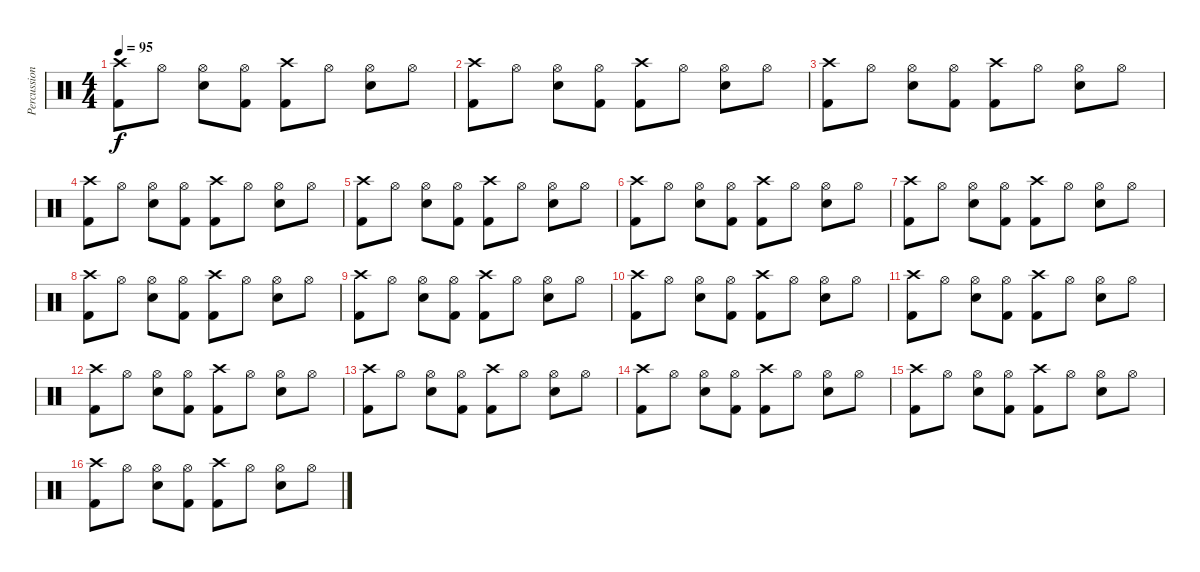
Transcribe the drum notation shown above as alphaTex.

\track ("Percussion" "Percussion") {instrument percussion}
\staff {score}
\articulation defaults
\ts (4 4)
\tempo 95
\clef neutral
\ks c
("Crash high (hit)" "Kick (hit) 2").8{dy f} "Hi-Hat (open)".8 ("Hi-Hat (open)" "Snare (hit) 2").8 ("Hi-Hat (open)" "Kick (hit) 2").8 ("Crash high (hit)" "Kick (hit) 2").8 "Hi-Hat (open)".8 ("Hi-Hat (open)" "Snare (hit) 2").8 "Hi-Hat (open)".8 |
("Crash high (hit)" "Kick (hit) 2").8 "Hi-Hat (open)".8 ("Hi-Hat (open)" "Snare (hit) 2").8 ("Hi-Hat (open)" "Kick (hit) 2").8 ("Crash high (hit)" "Kick (hit) 2").8 "Hi-Hat (open)".8 ("Hi-Hat (open)" "Snare (hit) 2").8 "Hi-Hat (open)".8 |
("Crash high (hit)" "Kick (hit) 2").8 "Hi-Hat (open)".8 ("Hi-Hat (open)" "Snare (hit) 2").8 ("Hi-Hat (open)" "Kick (hit) 2").8 ("Crash high (hit)" "Kick (hit) 2").8 "Hi-Hat (open)".8 ("Hi-Hat (open)" "Snare (hit) 2").8 "Hi-Hat (open)".8 |
("Crash high (hit)" "Kick (hit) 2").8 "Hi-Hat (open)".8 ("Hi-Hat (open)" "Snare (hit) 2").8 ("Hi-Hat (open)" "Kick (hit) 2").8 ("Crash high (hit)" "Kick (hit) 2").8 "Hi-Hat (open)".8 ("Hi-Hat (open)" "Snare (hit) 2").8 "Hi-Hat (open)".8 |
("Crash high (hit)" "Kick (hit) 2").8 "Hi-Hat (open)".8 ("Hi-Hat (open)" "Snare (hit) 2").8 ("Hi-Hat (open)" "Kick (hit) 2").8 ("Crash high (hit)" "Kick (hit) 2").8 "Hi-Hat (open)".8 ("Hi-Hat (open)" "Snare (hit) 2").8 "Hi-Hat (open)".8 |
("Crash high (hit)" "Kick (hit) 2").8 "Hi-Hat (open)".8 ("Hi-Hat (open)" "Snare (hit) 2").8 ("Hi-Hat (open)" "Kick (hit) 2").8 ("Crash high (hit)" "Kick (hit) 2").8 "Hi-Hat (open)".8 ("Hi-Hat (open)" "Snare (hit) 2").8 "Hi-Hat (open)".8 |
("Crash high (hit)" "Kick (hit) 2").8 "Hi-Hat (open)".8 ("Hi-Hat (open)" "Snare (hit) 2").8 ("Hi-Hat (open)" "Kick (hit) 2").8 ("Crash high (hit)" "Kick (hit) 2").8 "Hi-Hat (open)".8 ("Hi-Hat (open)" "Snare (hit) 2").8 "Hi-Hat (open)".8 |
("Crash high (hit)" "Kick (hit) 2").8 "Hi-Hat (open)".8 ("Hi-Hat (open)" "Snare (hit) 2").8 ("Hi-Hat (open)" "Kick (hit) 2").8 ("Crash high (hit)" "Kick (hit) 2").8 "Hi-Hat (open)".8 ("Hi-Hat (open)" "Snare (hit) 2").8 "Hi-Hat (open)".8 |
("Crash high (hit)" "Kick (hit) 2").8 "Hi-Hat (open)".8 ("Hi-Hat (open)" "Snare (hit) 2").8 ("Hi-Hat (open)" "Kick (hit) 2").8 ("Crash high (hit)" "Kick (hit) 2").8 "Hi-Hat (open)".8 ("Hi-Hat (open)" "Snare (hit) 2").8 "Hi-Hat (open)".8 |
("Crash high (hit)" "Kick (hit) 2").8 "Hi-Hat (open)".8 ("Hi-Hat (open)" "Snare (hit) 2").8 ("Hi-Hat (open)" "Kick (hit) 2").8 ("Crash high (hit)" "Kick (hit) 2").8 "Hi-Hat (open)".8 ("Hi-Hat (open)" "Snare (hit) 2").8 "Hi-Hat (open)".8 |
("Crash high (hit)" "Kick (hit) 2").8 "Hi-Hat (open)".8 ("Hi-Hat (open)" "Snare (hit) 2").8 ("Hi-Hat (open)" "Kick (hit) 2").8 ("Crash high (hit)" "Kick (hit) 2").8 "Hi-Hat (open)".8 ("Hi-Hat (open)" "Snare (hit) 2").8 "Hi-Hat (open)".8 |
("Crash high (hit)" "Kick (hit) 2").8 "Hi-Hat (open)".8 ("Hi-Hat (open)" "Snare (hit) 2").8 ("Hi-Hat (open)" "Kick (hit) 2").8 ("Crash high (hit)" "Kick (hit) 2").8 "Hi-Hat (open)".8 ("Hi-Hat (open)" "Snare (hit) 2").8 "Hi-Hat (open)".8 |
("Crash high (hit)" "Kick (hit) 2").8 "Hi-Hat (open)".8 ("Hi-Hat (open)" "Snare (hit) 2").8 ("Hi-Hat (open)" "Kick (hit) 2").8 ("Crash high (hit)" "Kick (hit) 2").8 "Hi-Hat (open)".8 ("Hi-Hat (open)" "Snare (hit) 2").8 "Hi-Hat (open)".8 |
("Crash high (hit)" "Kick (hit) 2").8 "Hi-Hat (open)".8 ("Hi-Hat (open)" "Snare (hit) 2").8 ("Hi-Hat (open)" "Kick (hit) 2").8 ("Crash high (hit)" "Kick (hit) 2").8 "Hi-Hat (open)".8 ("Hi-Hat (open)" "Snare (hit) 2").8 "Hi-Hat (open)".8 |
("Crash high (hit)" "Kick (hit) 2").8 "Hi-Hat (open)".8 ("Hi-Hat (open)" "Snare (hit) 2").8 ("Hi-Hat (open)" "Kick (hit) 2").8 ("Crash high (hit)" "Kick (hit) 2").8 "Hi-Hat (open)".8 ("Hi-Hat (open)" "Snare (hit) 2").8 "Hi-Hat (open)".8 |
("Crash high (hit)" "Kick (hit) 2").8 "Hi-Hat (open)".8 ("Hi-Hat (open)" "Snare (hit) 2").8 ("Hi-Hat (open)" "Kick (hit) 2").8 ("Crash high (hit)" "Kick (hit) 2").8 "Hi-Hat (open)".8 ("Hi-Hat (open)" "Snare (hit) 2").8 "Hi-Hat (open)".8
